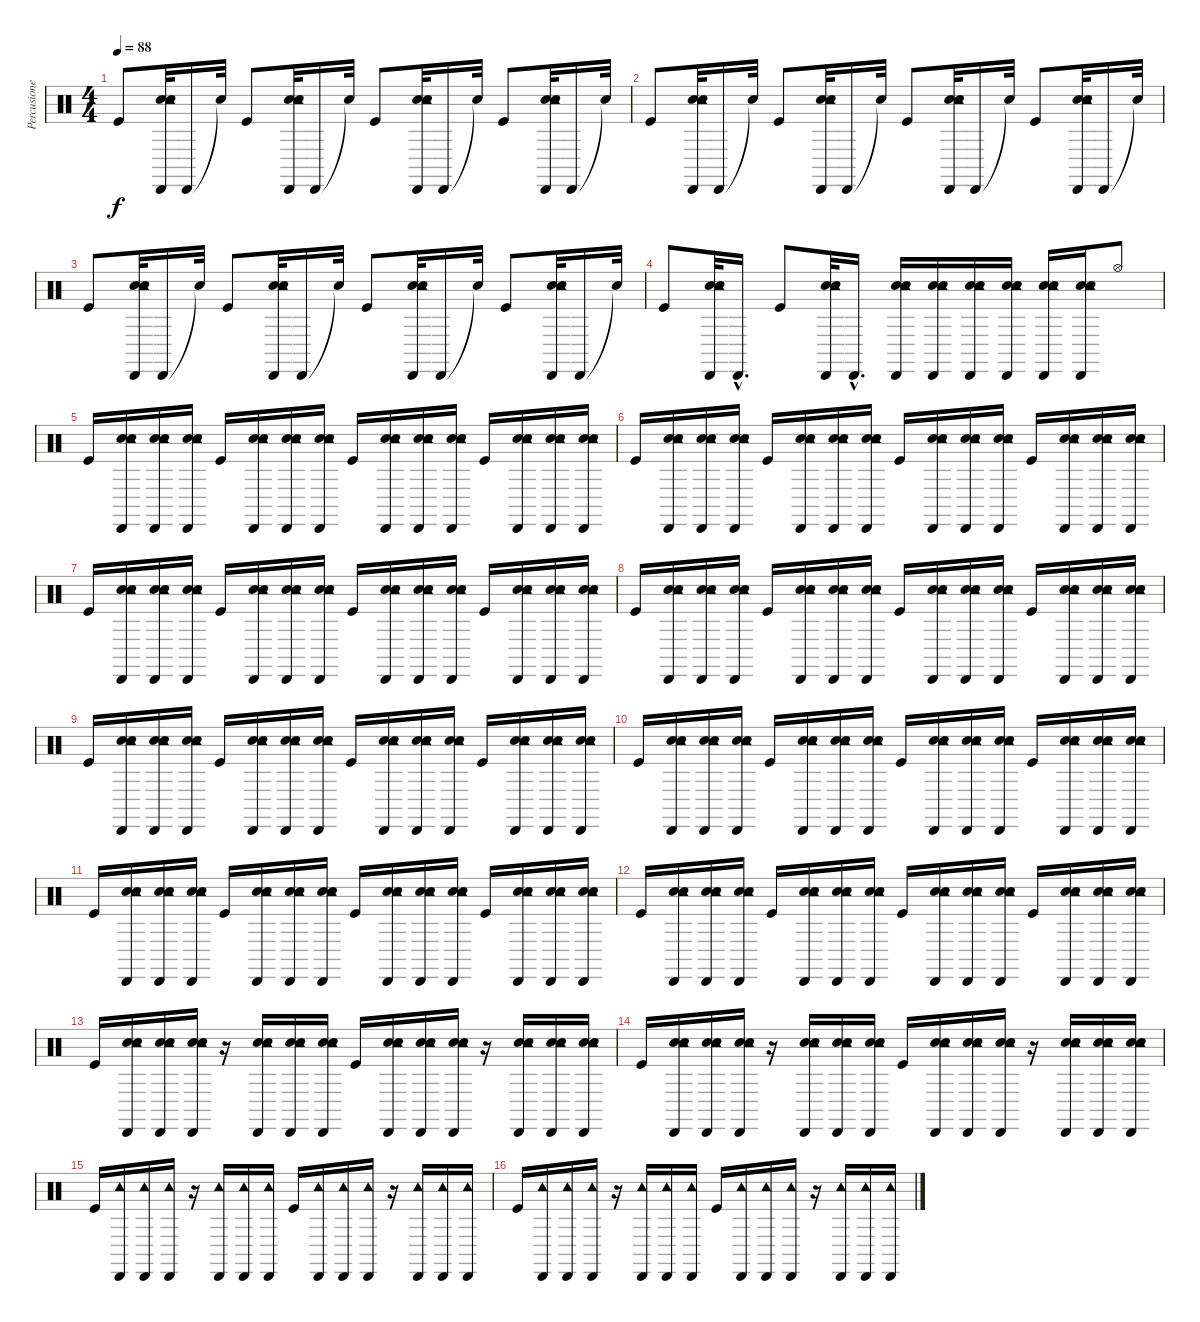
\track ("Percusiones" "Percusione") {instrument percussion}
\staff {score}
\articulation defaults
\ts (4 4)
\tempo 88
\clef neutral
\ks c "Kick (hit)".8{dy f}
("Electric Snare (hit)" "Tambourine (hit)" "Snare (hit) 2" "Cabasa (hit)").32 "Cabasa (hit)".16 "Snare (hit)"{t}.32 "Kick (hit)".8 ("Electric Snare (hit)" "Tambourine (hit)" "Snare (hit) 2" "Cabasa (hit)").32 "Cabasa (hit)".16 "Snare (hit)"{t}.32 "Kick (hit)".8 ("Electric Snare (hit)" "Tambourine (hit)" "Snare (hit) 2" "Cabasa (hit)").32 "Cabasa (hit)".16 "Snare (hit)"{t}.32 "Kick (hit)".8 ("Electric Snare (hit)" "Tambourine (hit)" "Snare (hit) 2" "Cabasa (hit)").32 "Cabasa (hit)".16 "Snare (hit)"{t}.32 |
"Kick (hit)".8 ("Electric Snare (hit)" "Tambourine (hit)" "Snare (hit) 2" "Cabasa (hit)").32 "Cabasa (hit)".16 "Snare (hit)"{t}.32 "Kick (hit)".8 ("Electric Snare (hit)" "Tambourine (hit)" "Snare (hit) 2" "Cabasa (hit)").32 "Cabasa (hit)".16 "Snare (hit)"{t}.32 "Kick (hit)".8 ("Electric Snare (hit)" "Tambourine (hit)" "Snare (hit) 2" "Cabasa (hit)").32 "Cabasa (hit)".16 "Snare (hit)"{t}.32 "Kick (hit)".8 ("Electric Snare (hit)" "Tambourine (hit)" "Snare (hit) 2" "Cabasa (hit)").32 "Cabasa (hit)".16 "Snare (hit)"{t}.32 |
"Kick (hit)".8 ("Electric Snare (hit)" "Tambourine (hit)" "Snare (hit) 2" "Cabasa (hit)").32 "Cabasa (hit)".16 "Snare (hit)"{t}.32 "Kick (hit)".8 ("Electric Snare (hit)" "Tambourine (hit)" "Snare (hit) 2" "Cabasa (hit)").32 "Cabasa (hit)".16 "Snare (hit)"{t}.32 "Kick (hit)".8 ("Electric Snare (hit)" "Tambourine (hit)" "Snare (hit) 2" "Cabasa (hit)").32 "Cabasa (hit)".16 "Snare (hit)"{t}.32 "Kick (hit)".8 ("Electric Snare (hit)" "Tambourine (hit)" "Snare (hit) 2" "Cabasa (hit)").32 "Cabasa (hit)".16 "Snare (hit)"{t}.32 |
"Kick (hit)".8 ("Electric Snare (hit)" "Tambourine (hit)" "Snare (hit) 2" "Cabasa (hit)").32 "Cabasa (hit)"{hac}.16{d} "Kick (hit)".8 ("Electric Snare (hit)" "Tambourine (hit)" "Snare (hit) 2" "Cabasa (hit)").32 "Cabasa (hit)"{hac}.16{d} ("Electric Snare (hit)" "Tambourine (hit)" "Snare (hit) 2" "Cabasa (hit)").16 ("Electric Snare (hit)" "Tambourine (hit)" "Snare (hit) 2" "Cabasa (hit)").16 ("Electric Snare (hit)" "Tambourine (hit)" "Snare (hit) 2" "Cabasa (hit)").16 ("Electric Snare (hit)" "Tambourine (hit)" "Snare (hit) 2" "Cabasa (hit)").16 ("Electric Snare (hit)" "Tambourine (hit)" "Snare (hit) 2" "Cabasa (hit)").16 ("Electric Snare (hit)" "Tambourine (hit)" "Snare (hit) 2" "Cabasa (hit)").16 "Hi-Hat (open)".8 |
"Kick (hit)".16 ("Electric Snare (hit)" "Tambourine (hit)" "Snare (hit) 2" "Cabasa (hit)").16 ("Electric Snare (hit)" "Tambourine (hit)" "Snare (hit) 2" "Cabasa (hit)").16 ("Electric Snare (hit)" "Tambourine (hit)" "Snare (hit) 2" "Cabasa (hit)").16 "Kick (hit)".16 ("Electric Snare (hit)" "Tambourine (hit)" "Snare (hit) 2" "Cabasa (hit)").16 ("Electric Snare (hit)" "Tambourine (hit)" "Snare (hit) 2" "Cabasa (hit)").16 ("Electric Snare (hit)" "Tambourine (hit)" "Snare (hit) 2" "Cabasa (hit)").16 "Kick (hit)".16 ("Electric Snare (hit)" "Tambourine (hit)" "Snare (hit) 2" "Cabasa (hit)").16 ("Electric Snare (hit)" "Tambourine (hit)" "Snare (hit) 2" "Cabasa (hit)").16 ("Electric Snare (hit)" "Tambourine (hit)" "Snare (hit) 2" "Cabasa (hit)").16 "Kick (hit)".16 ("Electric Snare (hit)" "Tambourine (hit)" "Snare (hit) 2" "Cabasa (hit)").16 ("Electric Snare (hit)" "Tambourine (hit)" "Snare (hit) 2" "Cabasa (hit)").16 ("Electric Snare (hit)" "Tambourine (hit)" "Snare (hit) 2" "Cabasa (hit)").16 |
"Kick (hit)".16 ("Electric Snare (hit)" "Tambourine (hit)" "Snare (hit) 2" "Cabasa (hit)").16 ("Electric Snare (hit)" "Tambourine (hit)" "Snare (hit) 2" "Cabasa (hit)").16 ("Electric Snare (hit)" "Tambourine (hit)" "Snare (hit) 2" "Cabasa (hit)").16 "Kick (hit)".16 ("Electric Snare (hit)" "Tambourine (hit)" "Snare (hit) 2" "Cabasa (hit)").16 ("Electric Snare (hit)" "Tambourine (hit)" "Snare (hit) 2" "Cabasa (hit)").16 ("Electric Snare (hit)" "Tambourine (hit)" "Snare (hit) 2" "Cabasa (hit)").16 "Kick (hit)".16 ("Electric Snare (hit)" "Tambourine (hit)" "Snare (hit) 2" "Cabasa (hit)").16 ("Electric Snare (hit)" "Tambourine (hit)" "Snare (hit) 2" "Cabasa (hit)").16 ("Electric Snare (hit)" "Tambourine (hit)" "Snare (hit) 2" "Cabasa (hit)").16 "Kick (hit)".16 ("Electric Snare (hit)" "Tambourine (hit)" "Snare (hit) 2" "Cabasa (hit)").16 ("Electric Snare (hit)" "Tambourine (hit)" "Snare (hit) 2" "Cabasa (hit)").16 ("Electric Snare (hit)" "Tambourine (hit)" "Snare (hit) 2" "Cabasa (hit)").16 |
"Kick (hit)".16 ("Electric Snare (hit)" "Tambourine (hit)" "Snare (hit) 2" "Cabasa (hit)").16 ("Electric Snare (hit)" "Tambourine (hit)" "Snare (hit) 2" "Cabasa (hit)").16 ("Electric Snare (hit)" "Tambourine (hit)" "Snare (hit) 2" "Cabasa (hit)").16 "Kick (hit)".16 ("Electric Snare (hit)" "Tambourine (hit)" "Snare (hit) 2" "Cabasa (hit)").16 ("Electric Snare (hit)" "Tambourine (hit)" "Snare (hit) 2" "Cabasa (hit)").16 ("Electric Snare (hit)" "Tambourine (hit)" "Snare (hit) 2" "Cabasa (hit)").16 "Kick (hit)".16 ("Electric Snare (hit)" "Tambourine (hit)" "Snare (hit) 2" "Cabasa (hit)").16 ("Electric Snare (hit)" "Tambourine (hit)" "Snare (hit) 2" "Cabasa (hit)").16 ("Electric Snare (hit)" "Tambourine (hit)" "Snare (hit) 2" "Cabasa (hit)").16 "Kick (hit)".16 ("Electric Snare (hit)" "Tambourine (hit)" "Snare (hit) 2" "Cabasa (hit)").16 ("Electric Snare (hit)" "Tambourine (hit)" "Snare (hit) 2" "Cabasa (hit)").16 ("Electric Snare (hit)" "Tambourine (hit)" "Snare (hit) 2" "Cabasa (hit)").16 |
"Kick (hit)".16 ("Electric Snare (hit)" "Tambourine (hit)" "Snare (hit) 2" "Cabasa (hit)").16 ("Electric Snare (hit)" "Tambourine (hit)" "Snare (hit) 2" "Cabasa (hit)").16 ("Electric Snare (hit)" "Tambourine (hit)" "Snare (hit) 2" "Cabasa (hit)").16 "Kick (hit)".16 ("Electric Snare (hit)" "Tambourine (hit)" "Snare (hit) 2" "Cabasa (hit)").16 ("Electric Snare (hit)" "Tambourine (hit)" "Snare (hit) 2" "Cabasa (hit)").16 ("Electric Snare (hit)" "Tambourine (hit)" "Snare (hit) 2" "Cabasa (hit)").16 "Kick (hit)".16 ("Electric Snare (hit)" "Tambourine (hit)" "Snare (hit) 2" "Cabasa (hit)").16 ("Electric Snare (hit)" "Tambourine (hit)" "Snare (hit) 2" "Cabasa (hit)").16 ("Electric Snare (hit)" "Tambourine (hit)" "Snare (hit) 2" "Cabasa (hit)").16 "Kick (hit)".16 ("Electric Snare (hit)" "Tambourine (hit)" "Snare (hit) 2" "Cabasa (hit)").16 ("Electric Snare (hit)" "Tambourine (hit)" "Snare (hit) 2" "Cabasa (hit)").16 ("Electric Snare (hit)" "Tambourine (hit)" "Snare (hit) 2" "Cabasa (hit)").16 |
"Kick (hit)".16 ("Electric Snare (hit)" "Tambourine (hit)" "Snare (hit) 2" "Cabasa (hit)").16 ("Electric Snare (hit)" "Tambourine (hit)" "Snare (hit) 2" "Cabasa (hit)").16 ("Electric Snare (hit)" "Tambourine (hit)" "Snare (hit) 2" "Cabasa (hit)").16 "Kick (hit)".16 ("Electric Snare (hit)" "Tambourine (hit)" "Snare (hit) 2" "Cabasa (hit)").16 ("Electric Snare (hit)" "Tambourine (hit)" "Snare (hit) 2" "Cabasa (hit)").16 ("Electric Snare (hit)" "Tambourine (hit)" "Snare (hit) 2" "Cabasa (hit)").16 "Kick (hit)".16 ("Electric Snare (hit)" "Tambourine (hit)" "Snare (hit) 2" "Cabasa (hit)").16 ("Electric Snare (hit)" "Tambourine (hit)" "Snare (hit) 2" "Cabasa (hit)").16 ("Electric Snare (hit)" "Tambourine (hit)" "Snare (hit) 2" "Cabasa (hit)").16 "Kick (hit)".16 ("Electric Snare (hit)" "Tambourine (hit)" "Snare (hit) 2" "Cabasa (hit)").16 ("Electric Snare (hit)" "Tambourine (hit)" "Snare (hit) 2" "Cabasa (hit)").16 ("Electric Snare (hit)" "Tambourine (hit)" "Snare (hit) 2" "Cabasa (hit)").16 |
"Kick (hit)".16 ("Electric Snare (hit)" "Tambourine (hit)" "Snare (hit) 2" "Cabasa (hit)").16 ("Electric Snare (hit)" "Tambourine (hit)" "Snare (hit) 2" "Cabasa (hit)").16 ("Electric Snare (hit)" "Tambourine (hit)" "Snare (hit) 2" "Cabasa (hit)").16 "Kick (hit)".16 ("Electric Snare (hit)" "Tambourine (hit)" "Snare (hit) 2" "Cabasa (hit)").16 ("Electric Snare (hit)" "Tambourine (hit)" "Snare (hit) 2" "Cabasa (hit)").16 ("Electric Snare (hit)" "Tambourine (hit)" "Snare (hit) 2" "Cabasa (hit)").16 "Kick (hit)".16 ("Electric Snare (hit)" "Tambourine (hit)" "Snare (hit) 2" "Cabasa (hit)").16 ("Electric Snare (hit)" "Tambourine (hit)" "Snare (hit) 2" "Cabasa (hit)").16 ("Electric Snare (hit)" "Tambourine (hit)" "Snare (hit) 2" "Cabasa (hit)").16 "Kick (hit)".16 ("Electric Snare (hit)" "Tambourine (hit)" "Snare (hit) 2" "Cabasa (hit)").16 ("Electric Snare (hit)" "Tambourine (hit)" "Snare (hit) 2" "Cabasa (hit)").16 ("Electric Snare (hit)" "Tambourine (hit)" "Snare (hit) 2" "Cabasa (hit)").16 |
"Kick (hit)".16 ("Electric Snare (hit)" "Tambourine (hit)" "Snare (hit) 2" "Cabasa (hit)").16 ("Electric Snare (hit)" "Tambourine (hit)" "Snare (hit) 2" "Cabasa (hit)").16 ("Electric Snare (hit)" "Tambourine (hit)" "Snare (hit) 2" "Cabasa (hit)").16 "Kick (hit)".16 ("Electric Snare (hit)" "Tambourine (hit)" "Snare (hit) 2" "Cabasa (hit)").16 ("Electric Snare (hit)" "Tambourine (hit)" "Snare (hit) 2" "Cabasa (hit)").16 ("Electric Snare (hit)" "Tambourine (hit)" "Snare (hit) 2" "Cabasa (hit)").16 "Kick (hit)".16 ("Electric Snare (hit)" "Tambourine (hit)" "Snare (hit) 2" "Cabasa (hit)").16 ("Electric Snare (hit)" "Tambourine (hit)" "Snare (hit) 2" "Cabasa (hit)").16 ("Electric Snare (hit)" "Tambourine (hit)" "Snare (hit) 2" "Cabasa (hit)").16 "Kick (hit)".16 ("Electric Snare (hit)" "Tambourine (hit)" "Snare (hit) 2" "Cabasa (hit)").16 ("Electric Snare (hit)" "Tambourine (hit)" "Snare (hit) 2" "Cabasa (hit)").16 ("Electric Snare (hit)" "Tambourine (hit)" "Snare (hit) 2" "Cabasa (hit)").16 |
"Kick (hit)".16 ("Electric Snare (hit)" "Tambourine (hit)" "Snare (hit) 2" "Cabasa (hit)").16 ("Electric Snare (hit)" "Tambourine (hit)" "Snare (hit) 2" "Cabasa (hit)").16 ("Electric Snare (hit)" "Tambourine (hit)" "Snare (hit) 2" "Cabasa (hit)").16 "Kick (hit)".16 ("Electric Snare (hit)" "Tambourine (hit)" "Snare (hit) 2" "Cabasa (hit)").16 ("Electric Snare (hit)" "Tambourine (hit)" "Snare (hit) 2" "Cabasa (hit)").16 ("Electric Snare (hit)" "Tambourine (hit)" "Snare (hit) 2" "Cabasa (hit)").16 "Kick (hit)".16 ("Electric Snare (hit)" "Tambourine (hit)" "Snare (hit) 2" "Cabasa (hit)").16 ("Electric Snare (hit)" "Tambourine (hit)" "Snare (hit) 2" "Cabasa (hit)").16 ("Electric Snare (hit)" "Tambourine (hit)" "Snare (hit) 2" "Cabasa (hit)").16 "Kick (hit)".16 ("Electric Snare (hit)" "Tambourine (hit)" "Snare (hit) 2" "Cabasa (hit)").16 ("Electric Snare (hit)" "Tambourine (hit)" "Snare (hit) 2" "Cabasa (hit)").16 ("Electric Snare (hit)" "Tambourine (hit)" "Snare (hit) 2" "Cabasa (hit)").16 |
"Kick (hit)".16 ("Electric Snare (hit)" "Tambourine (hit)" "Snare (hit) 2" "Cabasa (hit)").16 ("Electric Snare (hit)" "Tambourine (hit)" "Snare (hit) 2" "Cabasa (hit)").16 ("Electric Snare (hit)" "Tambourine (hit)" "Snare (hit) 2" "Cabasa (hit)").16 r.16 ("Electric Snare (hit)" "Tambourine (hit)" "Snare (hit) 2" "Cabasa (hit)").16 ("Electric Snare (hit)" "Tambourine (hit)" "Snare (hit) 2" "Cabasa (hit)").16 ("Electric Snare (hit)" "Tambourine (hit)" "Snare (hit) 2" "Cabasa (hit)").16 "Kick (hit)".16 ("Electric Snare (hit)" "Tambourine (hit)" "Snare (hit) 2" "Cabasa (hit)").16 ("Electric Snare (hit)" "Tambourine (hit)" "Snare (hit) 2" "Cabasa (hit)").16 ("Electric Snare (hit)" "Tambourine (hit)" "Snare (hit) 2" "Cabasa (hit)").16 r.16 ("Electric Snare (hit)" "Tambourine (hit)" "Snare (hit) 2" "Cabasa (hit)").16 ("Electric Snare (hit)" "Tambourine (hit)" "Snare (hit) 2" "Cabasa (hit)").16 ("Electric Snare (hit)" "Tambourine (hit)" "Snare (hit) 2" "Cabasa (hit)").16 |
"Kick (hit)".16 ("Electric Snare (hit)" "Tambourine (hit)" "Snare (hit) 2" "Cabasa (hit)").16 ("Electric Snare (hit)" "Tambourine (hit)" "Snare (hit) 2" "Cabasa (hit)").16 ("Electric Snare (hit)" "Tambourine (hit)" "Snare (hit) 2" "Cabasa (hit)").16 r.16 ("Electric Snare (hit)" "Tambourine (hit)" "Snare (hit) 2" "Cabasa (hit)").16 ("Electric Snare (hit)" "Tambourine (hit)" "Snare (hit) 2" "Cabasa (hit)").16 ("Electric Snare (hit)" "Tambourine (hit)" "Snare (hit) 2" "Cabasa (hit)").16 "Kick (hit)".16 ("Electric Snare (hit)" "Tambourine (hit)" "Snare (hit) 2" "Cabasa (hit)").16 ("Electric Snare (hit)" "Tambourine (hit)" "Snare (hit) 2" "Cabasa (hit)").16 ("Electric Snare (hit)" "Tambourine (hit)" "Snare (hit) 2" "Cabasa (hit)").16 r.16 ("Electric Snare (hit)" "Tambourine (hit)" "Snare (hit) 2" "Cabasa (hit)").16 ("Electric Snare (hit)" "Tambourine (hit)" "Snare (hit) 2" "Cabasa (hit)").16 ("Electric Snare (hit)" "Tambourine (hit)" "Snare (hit) 2" "Cabasa (hit)").16 |
"Kick (hit)".16 ("Tambourine (hit)" "Cabasa (hit)").16 ("Tambourine (hit)" "Cabasa (hit)").16 ("Tambourine (hit)" "Cabasa (hit)").16 r.16 ("Tambourine (hit)" "Cabasa (hit)").16 ("Tambourine (hit)" "Cabasa (hit)").16 ("Tambourine (hit)" "Cabasa (hit)").16 "Kick (hit)".16 ("Tambourine (hit)" "Cabasa (hit)").16 ("Tambourine (hit)" "Cabasa (hit)").16 ("Tambourine (hit)" "Cabasa (hit)").16 r.16 ("Tambourine (hit)" "Cabasa (hit)").16 ("Tambourine (hit)" "Cabasa (hit)").16 ("Tambourine (hit)" "Cabasa (hit)").16 |
"Kick (hit)".16 ("Tambourine (hit)" "Cabasa (hit)").16 ("Tambourine (hit)" "Cabasa (hit)").16 ("Tambourine (hit)" "Cabasa (hit)").16 r.16 ("Tambourine (hit)" "Cabasa (hit)").16 ("Tambourine (hit)" "Cabasa (hit)").16 ("Tambourine (hit)" "Cabasa (hit)").16 "Kick (hit)".16 ("Tambourine (hit)" "Cabasa (hit)").16 ("Tambourine (hit)" "Cabasa (hit)").16 ("Tambourine (hit)" "Cabasa (hit)").16 r.16 ("Tambourine (hit)" "Cabasa (hit)").16 ("Tambourine (hit)" "Cabasa (hit)").16 ("Tambourine (hit)" "Cabasa (hit)").16
